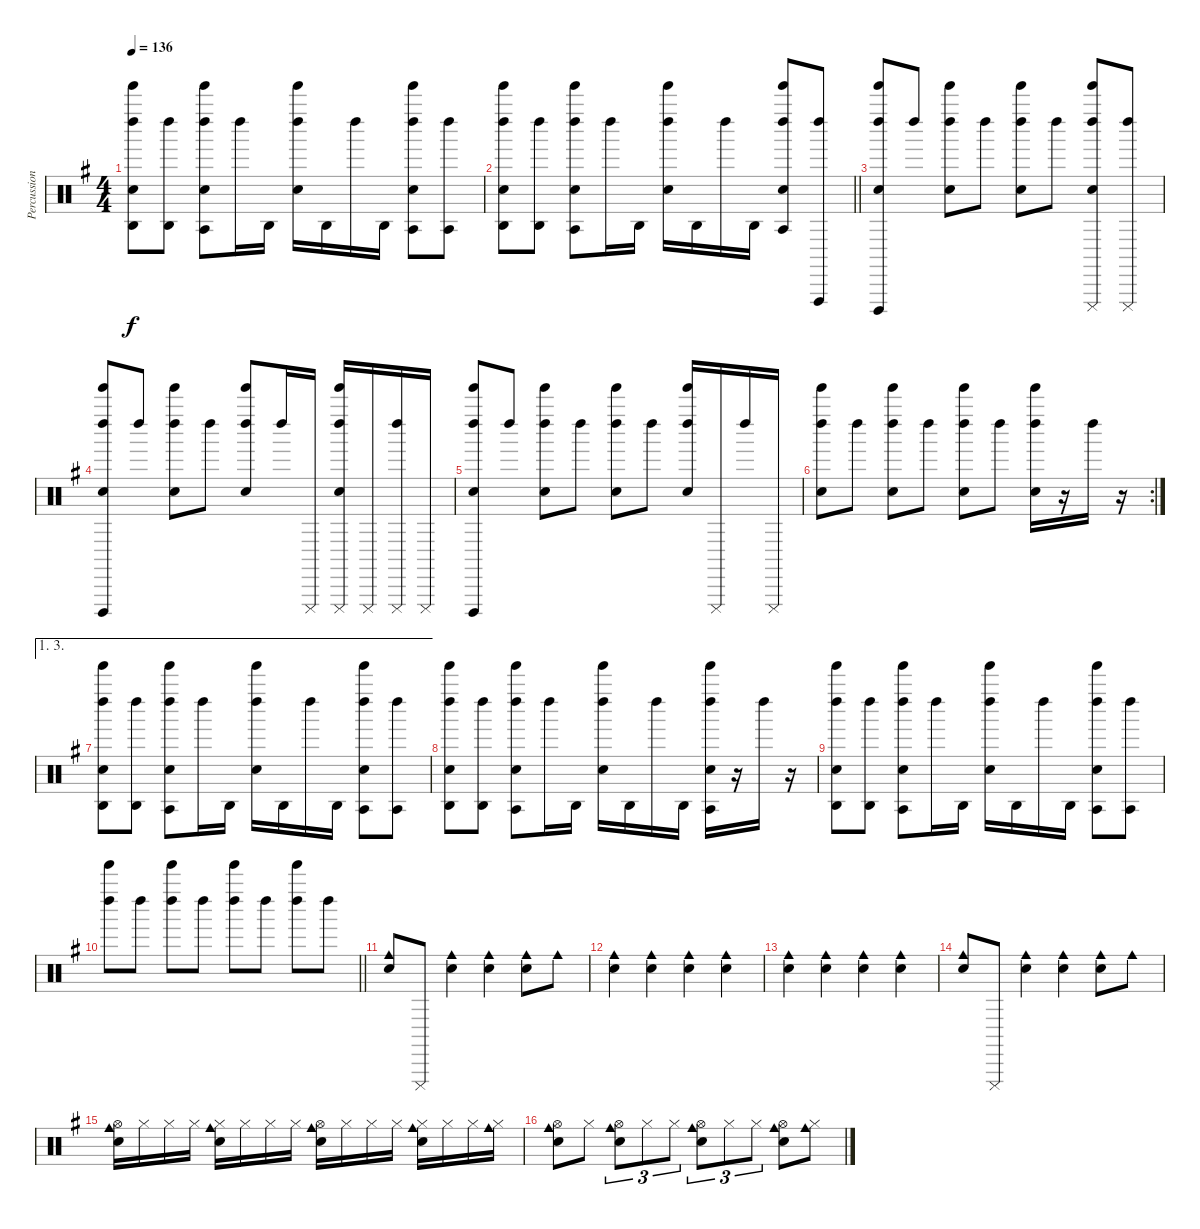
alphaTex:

\track ("Percussions" "Percussion") {instrument percussion}
\staff {score}
\articulation defaults
\ts (4 4)
\tempo 136
\clef neutral
\ks g
("Tinkle Bell (hit)" "Left Maraca (hit)" "Agogo high (hit)" "Hand Clap (hit)").8{dy f} ("Left Maraca (hit)" "Agogo high (hit)").8 ("Tinkle Bell (hit)" "Left Maraca (hit)" "Agogo tow (hit)" "Hand Clap (hit)").8 "Left Maraca (hit)".16 "Agogo high (hit)".16 ("Tinkle Bell (hit)" "Left Maraca (hit)" "Hand Clap (hit)").16 "Agogo high (hit)".16 "Left Maraca (hit)".16 "Agogo high (hit)".16 ("Tinkle Bell (hit)" "Left Maraca (hit)" "Agogo tow (hit)" "Hand Clap (hit)").8 ("Left Maraca (hit)" "Agogo tow (hit)").8 |
\barLineRight lightlight
("Tinkle Bell (hit)" "Left Maraca (hit)" "Agogo high (hit)" "Hand Clap (hit)").8 ("Left Maraca (hit)" "Agogo high (hit)").8 ("Tinkle Bell (hit)" "Left Maraca (hit)" "Agogo tow (hit)" "Hand Clap (hit)").8 "Left Maraca (hit)".16 "Agogo high (hit)".16 ("Tinkle Bell (hit)" "Left Maraca (hit)" "Hand Clap (hit)").16 "Agogo high (hit)".16 "Left Maraca (hit)".16 "Agogo high (hit)".16 ("Tinkle Bell (hit)" "Left Maraca (hit)" "Agogo tow (hit)" "Hand Clap (hit)").8 ("Left Maraca (hit)" "Vibraslap (hit)").8 |
("Tinkle Bell (hit)" "Left Maraca (hit)" "Cuica (open)" "Hand Clap (hit)").8 "Left Maraca (hit)".8 ("Tinkle Bell (hit)" "Left Maraca (hit)" "Hand Clap (hit)").8 "Left Maraca (hit)".8 ("Tinkle Bell (hit)" "Left Maraca (hit)" "Hand Clap (hit)").8 "Left Maraca (hit)".8 ("Tinkle Bell (hit)" "Left Maraca (hit)" "Cuica (mute)" "Hand Clap (hit)").8 ("Left Maraca (hit)" "Cuica (mute)").8 |
("Tinkle Bell (hit)" "Left Maraca (hit)" "Cuica (open)" "Hand Clap (hit)").8 "Left Maraca (hit)".8 ("Tinkle Bell (hit)" "Left Maraca (hit)" "Hand Clap (hit)").8 "Left Maraca (hit)".8 ("Tinkle Bell (hit)" "Left Maraca (hit)" "Hand Clap (hit)").8 "Left Maraca (hit)".16 "Cuica (mute)".16 ("Tinkle Bell (hit)" "Left Maraca (hit)" "Cuica (mute)" "Hand Clap (hit)").16 "Cuica (mute)".16 ("Left Maraca (hit)" "Cuica (mute)").16 "Cuica (mute)".16 |
("Tinkle Bell (hit)" "Left Maraca (hit)" "Cuica (open)" "Hand Clap (hit)").8 "Left Maraca (hit)".8 ("Tinkle Bell (hit)" "Left Maraca (hit)" "Hand Clap (hit)").8 "Left Maraca (hit)".8 ("Tinkle Bell (hit)" "Left Maraca (hit)" "Hand Clap (hit)").8 "Left Maraca (hit)".8 ("Tinkle Bell (hit)" "Left Maraca (hit)" "Hand Clap (hit)").16 "Cuica (mute)".16 "Left Maraca (hit)".16 "Cuica (mute)".16 |
\rc 2
("Tinkle Bell (hit)" "Left Maraca (hit)" "Hand Clap (hit)").8 "Left Maraca (hit)".8 ("Tinkle Bell (hit)" "Left Maraca (hit)" "Hand Clap (hit)").8 "Left Maraca (hit)".8 ("Tinkle Bell (hit)" "Left Maraca (hit)" "Hand Clap (hit)").8 "Left Maraca (hit)".8 ("Tinkle Bell (hit)" "Left Maraca (hit)" "Hand Clap (hit)").16 r.16 "Left Maraca (hit)".16 r.16 |
\ae (1 3)
("Tinkle Bell (hit)" "Left Maraca (hit)" "Agogo high (hit)" "Hand Clap (hit)").8 ("Left Maraca (hit)" "Agogo high (hit)").8 ("Tinkle Bell (hit)" "Left Maraca (hit)" "Agogo tow (hit)" "Hand Clap (hit)").8 "Left Maraca (hit)".16 "Agogo high (hit)".16 ("Tinkle Bell (hit)" "Left Maraca (hit)" "Hand Clap (hit)").16 "Agogo high (hit)".16 "Left Maraca (hit)".16 "Agogo high (hit)".16 ("Tinkle Bell (hit)" "Left Maraca (hit)" "Agogo tow (hit)" "Hand Clap (hit)").8 ("Left Maraca (hit)" "Agogo tow (hit)").8 |
("Tinkle Bell (hit)" "Left Maraca (hit)" "Agogo high (hit)" "Hand Clap (hit)").8 ("Left Maraca (hit)" "Agogo high (hit)").8 ("Tinkle Bell (hit)" "Left Maraca (hit)" "Agogo tow (hit)" "Hand Clap (hit)").8 "Left Maraca (hit)".16 "Agogo high (hit)".16 ("Tinkle Bell (hit)" "Left Maraca (hit)" "Hand Clap (hit)").16 "Agogo high (hit)".16 "Left Maraca (hit)".16 "Agogo high (hit)".16 ("Tinkle Bell (hit)" "Left Maraca (hit)" "Agogo tow (hit)" "Hand Clap (hit)").16 r.16 "Left Maraca (hit)".16 r.16 |
("Tinkle Bell (hit)" "Left Maraca (hit)" "Agogo high (hit)" "Hand Clap (hit)").8 ("Left Maraca (hit)" "Agogo high (hit)").8 ("Tinkle Bell (hit)" "Left Maraca (hit)" "Agogo tow (hit)" "Hand Clap (hit)").8 "Left Maraca (hit)".16 "Agogo high (hit)".16 ("Tinkle Bell (hit)" "Left Maraca (hit)" "Hand Clap (hit)").16 "Agogo high (hit)".16 "Left Maraca (hit)".16 "Agogo high (hit)".16 ("Tinkle Bell (hit)" "Left Maraca (hit)" "Agogo tow (hit)" "Hand Clap (hit)").8 ("Left Maraca (hit)" "Agogo tow (hit)").8 |
\barLineRight lightlight
("Tinkle Bell (hit)" "Left Maraca (hit)").8 "Left Maraca (hit)".8 ("Tinkle Bell (hit)" "Left Maraca (hit)").8 "Left Maraca (hit)".8 ("Tinkle Bell (hit)" "Left Maraca (hit)").8 "Left Maraca (hit)".8 ("Tinkle Bell (hit)" "Left Maraca (hit)").8 "Left Maraca (hit)".8 |
("Hand Clap (hit)" "Cowbell medium (hit)").8 "Cuica (mute)".8 ("Hand Clap (hit)" "Cowbell medium (hit)").4 ("Hand Clap (hit)" "Cowbell medium (hit)").4 ("Hand Clap (hit)" "Cowbell medium (hit)").8 "Cowbell medium (hit)".8 |
("Hand Clap (hit)" "Cowbell medium (hit)").4 ("Hand Clap (hit)" "Cowbell medium (hit)").4 ("Hand Clap (hit)" "Cowbell medium (hit)").4 ("Hand Clap (hit)" "Cowbell medium (hit)").4 |
("Hand Clap (hit)" "Cowbell medium (hit)").4 ("Hand Clap (hit)" "Cowbell medium (hit)").4 ("Hand Clap (hit)" "Cowbell medium (hit)").4 ("Hand Clap (hit)" "Cowbell medium (hit)").4 |
("Hand Clap (hit)" "Cowbell medium (hit)").8 "Cuica (mute)".8 ("Hand Clap (hit)" "Cowbell medium (hit)").4 ("Hand Clap (hit)" "Cowbell medium (hit)").4 ("Hand Clap (hit)" "Cowbell medium (hit)").8 "Cowbell medium (hit)".8 |
("Hand Clap (hit)" "Cowbell medium (hit)" "Hi-Hat (open)").16 "Hi-Hat (closed)".16 "Hi-Hat (closed)".16 "Hi-Hat (closed)".16 ("Hand Clap (hit)" "Cowbell medium (hit)" "Hi-Hat (closed)").16 "Hi-Hat (closed)".16 "Hi-Hat (closed)".16 "Hi-Hat (closed)".16 ("Hand Clap (hit)" "Cowbell medium (hit)" "Hi-Hat (open)").16 "Hi-Hat (closed)".16 "Hi-Hat (closed)".16 "Hi-Hat (closed)".16 ("Hand Clap (hit)" "Cowbell medium (hit)" "Hi-Hat (closed)").16 "Hi-Hat (closed)".16 "Hi-Hat (closed)".16 ("Cowbell medium (hit)" "Hi-Hat (closed)").16 |
("Hand Clap (hit)" "Cowbell medium (hit)" "Hi-Hat (open)").8 "Hi-Hat (closed)".8 ("Hand Clap (hit)" "Cowbell medium (hit)" "Hi-Hat (open)").8{tu (3 2)} "Hi-Hat (closed)".8{tu (3 2)} "Hi-Hat (closed)".8{tu (3 2)} ("Hand Clap (hit)" "Cowbell medium (hit)" "Hi-Hat (open)").8{tu (3 2)} "Hi-Hat (closed)".8{tu (3 2)} "Hi-Hat (closed)".8{tu (3 2)} ("Hand Clap (hit)" "Cowbell medium (hit)" "Hi-Hat (open)").8 ("Cowbell medium (hit)" "Hi-Hat (closed)").8
